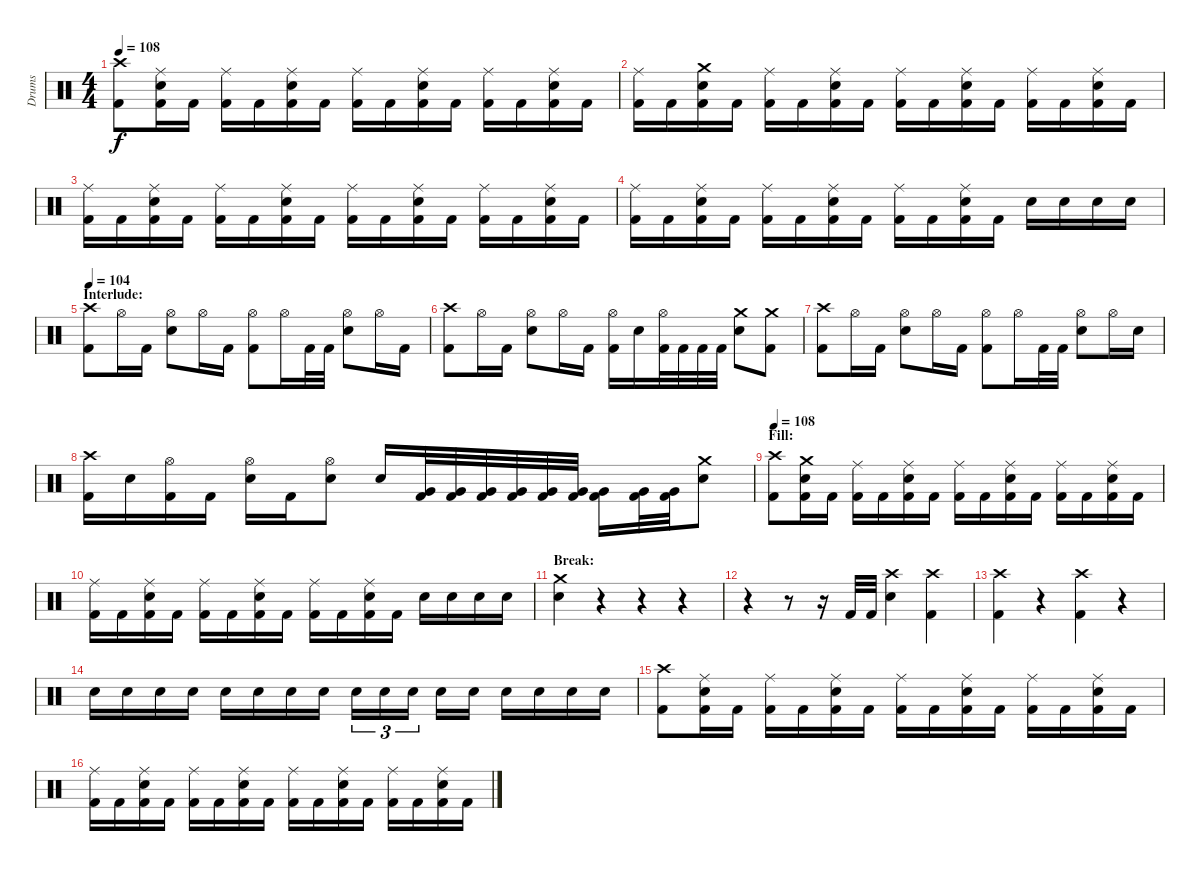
\track ("Drums" "Drums") {instrument percussion}
\staff {score}
\articulation defaults
\ts (4 4)
\tempo 108
\clef neutral
\ks c
("Crash high (hit)" "Kick (hit) 2").8{dy f} ("Ride (middle)" "Electric Snare (hit)" "Kick (hit) 2").16 "Kick (hit) 2".16 ("Ride (middle)" "Kick (hit) 2").16 "Kick (hit) 2".16 ("Ride (middle)" "Electric Snare (hit)" "Kick (hit) 2").16 "Kick (hit) 2".16 ("Ride (middle)" "Kick (hit) 2").16 "Kick (hit) 2".16 ("Ride (middle)" "Electric Snare (hit)" "Kick (hit) 2").16 "Kick (hit) 2".16 ("Ride (middle)" "Kick (hit) 2").16 "Kick (hit) 2".16 ("Ride (middle)" "Electric Snare (hit)" "Kick (hit) 2").16 "Kick (hit) 2".16 |
("Ride (middle)" "Kick (hit) 2").16 "Kick (hit) 2".16 ("Crash medium (hit)" "Electric Snare (hit)" "Kick (hit) 2").16 "Kick (hit) 2".16 ("Ride (middle)" "Kick (hit) 2").16 "Kick (hit) 2".16 ("Ride (middle)" "Electric Snare (hit)" "Kick (hit) 2").16 "Kick (hit) 2".16 ("Ride (middle)" "Kick (hit) 2").16 "Kick (hit) 2".16 ("Ride (middle)" "Electric Snare (hit)" "Kick (hit) 2").16 "Kick (hit) 2".16 ("Ride (middle)" "Kick (hit) 2").16 "Kick (hit) 2".16 ("Ride (middle)" "Electric Snare (hit)" "Kick (hit) 2").16 "Kick (hit) 2".16 |
("Ride (middle)" "Kick (hit) 2").16 "Kick (hit) 2".16 ("Ride (middle)" "Electric Snare (hit)" "Kick (hit) 2").16 "Kick (hit) 2".16 ("Ride (middle)" "Kick (hit) 2").16 "Kick (hit) 2".16 ("Ride (middle)" "Electric Snare (hit)" "Kick (hit) 2").16 "Kick (hit) 2".16 ("Ride (middle)" "Kick (hit) 2").16 "Kick (hit) 2".16 ("Ride (middle)" "Electric Snare (hit)" "Kick (hit) 2").16 "Kick (hit) 2".16 ("Ride (middle)" "Kick (hit) 2").16 "Kick (hit) 2".16 ("Ride (middle)" "Electric Snare (hit)" "Kick (hit) 2").16 "Kick (hit) 2".16 |
("Ride (middle)" "Kick (hit) 2").16 "Kick (hit) 2".16 ("Ride (middle)" "Electric Snare (hit)" "Kick (hit) 2").16 "Kick (hit) 2".16 ("Ride (middle)" "Kick (hit) 2").16 "Kick (hit) 2".16 ("Ride (middle)" "Electric Snare (hit)" "Kick (hit) 2").16 "Kick (hit) 2".16 ("Ride (middle)" "Kick (hit) 2").16 "Kick (hit) 2".16 ("Ride (middle)" "Electric Snare (hit)" "Kick (hit) 2").16 "Kick (hit) 2".16 "Electric Snare (hit)".16 "Electric Snare (hit)".16 "Electric Snare (hit)".16 "Electric Snare (hit)".16 |
\section ("" "Interlude:")
\tempo 104
("Crash high (hit)" "Kick (hit) 2").8 "Hi-Hat (open)".16 "Kick (hit) 2".16 ("Hi-Hat (open)" "Electric Snare (hit)").8 "Hi-Hat (open)".16 "Kick (hit) 2".16 ("Hi-Hat (open)" "Kick (hit) 2").8 "Hi-Hat (open)".16 "Kick (hit) 2".32 "Kick (hit) 2".32 ("Hi-Hat (open)" "Electric Snare (hit)").8 "Hi-Hat (open)".16 "Kick (hit) 2".16 |
("Crash high (hit)" "Kick (hit) 2").8 "Hi-Hat (open)".16 "Kick (hit) 2".16 ("Hi-Hat (open)" "Electric Snare (hit)").8 "Hi-Hat (open)".16 "Kick (hit) 2".16 ("Hi-Hat (open)" "Kick (hit) 2").16 "Electric Snare (hit)".16 ("Hi-Hat (open)" "Kick (hit) 2").32 "Kick (hit) 2".32 "Kick (hit) 2".32 "Kick (hit) 2".32 ("Crash medium (hit)" "Electric Snare (hit)").8 ("Crash medium (hit)" "Kick (hit) 2").8 |
("Crash high (hit)" "Kick (hit) 2").8 "Hi-Hat (open)".16 "Kick (hit) 2".16 ("Hi-Hat (open)" "Electric Snare (hit)").8 "Hi-Hat (open)".16 "Kick (hit) 2".16 ("Hi-Hat (open)" "Kick (hit) 2").8 "Hi-Hat (open)".16 "Kick (hit) 2".32 "Kick (hit) 2".32 ("Hi-Hat (open)" "Electric Snare (hit)").8 "Hi-Hat (open)".16 "Electric Snare (hit)".16 |
("Crash high (hit)" "Kick (hit) 2").16 "Electric Snare (hit)".16 ("Hi-Hat (open)" "Kick (hit) 2").16 "Kick (hit) 2".16 ("Hi-Hat (open)" "Electric Snare (hit)").16 "Kick (hit) 2".16 ("Hi-Hat (open)" "Electric Snare (hit)").8 "Electric Snare (hit)".16 ("Very Low Tom (hit)" "Kick (hit) 2").32 ("Very Low Tom (hit)" "Kick (hit) 2").32 ("Very Low Tom (hit)" "Kick (hit) 2").32 ("Very Low Tom (hit)" "Kick (hit) 2").32 ("Very Low Tom (hit)" "Kick (hit) 2").32 ("Very Low Tom (hit)" "Kick (hit) 2").32 ("Very Low Tom (hit)" "Kick (hit) 2").16 ("Very Low Tom (hit)" "Kick (hit) 2").32 ("Very Low Tom (hit)" "Kick (hit) 2").32 ("Crash medium (hit)" "Electric Snare (hit)").8 |
\section ("" "Fill:")
\tempo 108
("Crash high (hit)" "Kick (hit) 2").8 ("Crash medium (hit)" "Electric Snare (hit)" "Kick (hit) 2").16 "Kick (hit) 2".16 ("Ride (middle)" "Kick (hit) 2").16 "Kick (hit) 2".16 ("Ride (middle)" "Electric Snare (hit)" "Kick (hit) 2").16 "Kick (hit) 2".16 ("Ride (middle)" "Kick (hit) 2").16 "Kick (hit) 2".16 ("Ride (middle)" "Electric Snare (hit)" "Kick (hit) 2").16 "Kick (hit) 2".16 ("Ride (middle)" "Kick (hit) 2").16 "Kick (hit) 2".16 ("Ride (middle)" "Electric Snare (hit)" "Kick (hit) 2").16 "Kick (hit) 2".16 |
("Ride (middle)" "Kick (hit) 2").16 "Kick (hit) 2".16 ("Ride (middle)" "Electric Snare (hit)" "Kick (hit) 2").16 "Kick (hit) 2".16 ("Ride (middle)" "Kick (hit) 2").16 "Kick (hit) 2".16 ("Ride (middle)" "Electric Snare (hit)" "Kick (hit) 2").16 "Kick (hit) 2".16 ("Ride (middle)" "Kick (hit) 2").16 "Kick (hit) 2".16 ("Ride (middle)" "Electric Snare (hit)" "Kick (hit) 2").16 "Kick (hit) 2".16 "Electric Snare (hit)".16 "Electric Snare (hit)".16 "Electric Snare (hit)".16 "Electric Snare (hit)".16 |
\section ("" "Break:")
("Crash medium (hit)" "Electric Snare (hit)").4 r.4 r.4 r.4 |
r.4 r.8 r.16 "Kick (hit) 2".32 "Kick (hit) 2".32 ("Crash high (hit)" "Electric Snare (hit)").4 ("Crash high (hit)" "Kick (hit) 2").4 |
("Crash high (hit)" "Kick (hit) 2").4 r.4 ("Crash high (hit)" "Kick (hit) 2").4 r.4 |
"Electric Snare (hit)".16 "Electric Snare (hit)".16 "Electric Snare (hit)".16 "Electric Snare (hit)".16 "Electric Snare (hit)".16 "Electric Snare (hit)".16 "Electric Snare (hit)".16 "Electric Snare (hit)".16 "Electric Snare (hit)".16{tu (3 2)} "Electric Snare (hit)".16{tu (3 2)} "Electric Snare (hit)".16{tu (3 2)} "Electric Snare (hit)".16 "Electric Snare (hit)".16 "Electric Snare (hit)".16 "Electric Snare (hit)".16 "Electric Snare (hit)".16 "Electric Snare (hit)".16 |
("Crash high (hit)" "Kick (hit) 2").8 ("Ride (middle)" "Electric Snare (hit)" "Kick (hit) 2").16 "Kick (hit) 2".16 ("Ride (middle)" "Kick (hit) 2").16 "Kick (hit) 2".16 ("Ride (middle)" "Electric Snare (hit)" "Kick (hit) 2").16 "Kick (hit) 2".16 ("Ride (middle)" "Kick (hit) 2").16 "Kick (hit) 2".16 ("Ride (middle)" "Electric Snare (hit)" "Kick (hit) 2").16 "Kick (hit) 2".16 ("Ride (middle)" "Kick (hit) 2").16 "Kick (hit) 2".16 ("Ride (middle)" "Electric Snare (hit)" "Kick (hit) 2").16 "Kick (hit) 2".16 |
("Ride (middle)" "Kick (hit) 2").16 "Kick (hit) 2".16 ("Ride (middle)" "Electric Snare (hit)" "Kick (hit) 2").16 "Kick (hit) 2".16 ("Ride (middle)" "Kick (hit) 2").16 "Kick (hit) 2".16 ("Ride (middle)" "Electric Snare (hit)" "Kick (hit) 2").16 "Kick (hit) 2".16 ("Ride (middle)" "Kick (hit) 2").16 "Kick (hit) 2".16 ("Ride (middle)" "Electric Snare (hit)" "Kick (hit) 2").16 "Kick (hit) 2".16 ("Ride (middle)" "Kick (hit) 2").16 "Kick (hit) 2".16 ("Ride (middle)" "Electric Snare (hit)" "Kick (hit) 2").16 "Kick (hit) 2".16
